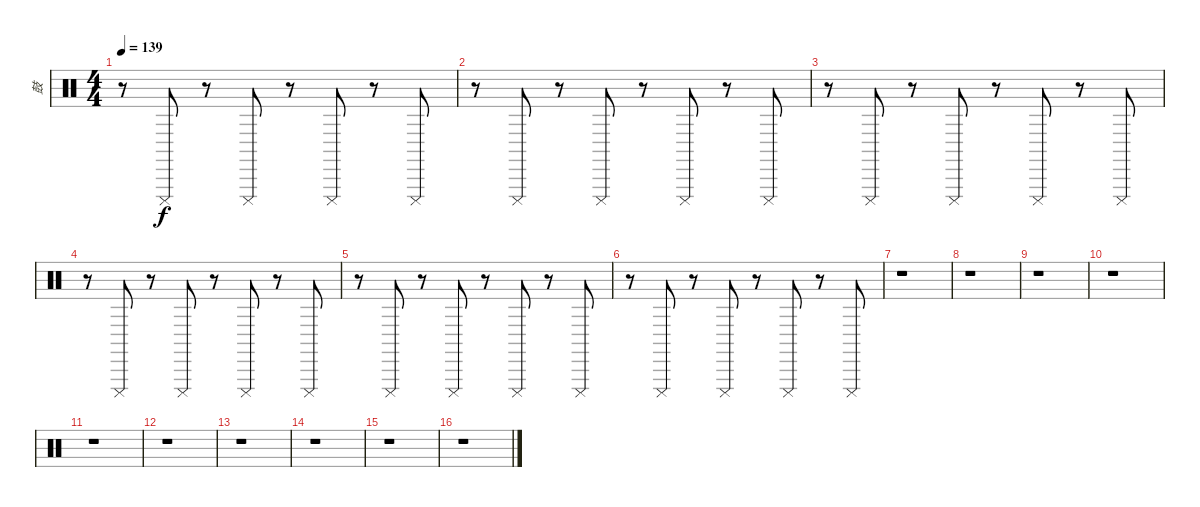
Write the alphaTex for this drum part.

\track ("鼓" "鼓") {instrument percussion}
\staff {score}
\articulation defaults
\ts (4 4)
\tempo 139
\clef neutral
\ks c
r.8{dy f} "Cuica (mute)".8 r.8 "Cuica (mute)".8 r.8 "Cuica (mute)".8 r.8 "Cuica (mute)".8 |
r.8 "Cuica (mute)".8 r.8 "Cuica (mute)".8 r.8 "Cuica (mute)".8 r.8 "Cuica (mute)".8 |
r.8 "Cuica (mute)".8 r.8 "Cuica (mute)".8 r.8 "Cuica (mute)".8 r.8 "Cuica (mute)".8 |
r.8 "Cuica (mute)".8 r.8 "Cuica (mute)".8 r.8 "Cuica (mute)".8 r.8 "Cuica (mute)".8 |
r.8 "Cuica (mute)".8 r.8 "Cuica (mute)".8 r.8 "Cuica (mute)".8 r.8 "Cuica (mute)".8 |
r.8 "Cuica (mute)".8 r.8 "Cuica (mute)".8 r.8 "Cuica (mute)".8 r.8 "Cuica (mute)".8 |
r.1 |
r.1 |
r.1 |
r.1 |
r.1 |
r.1 |
r.1 |
r.1 |
r.1 |
r.1
